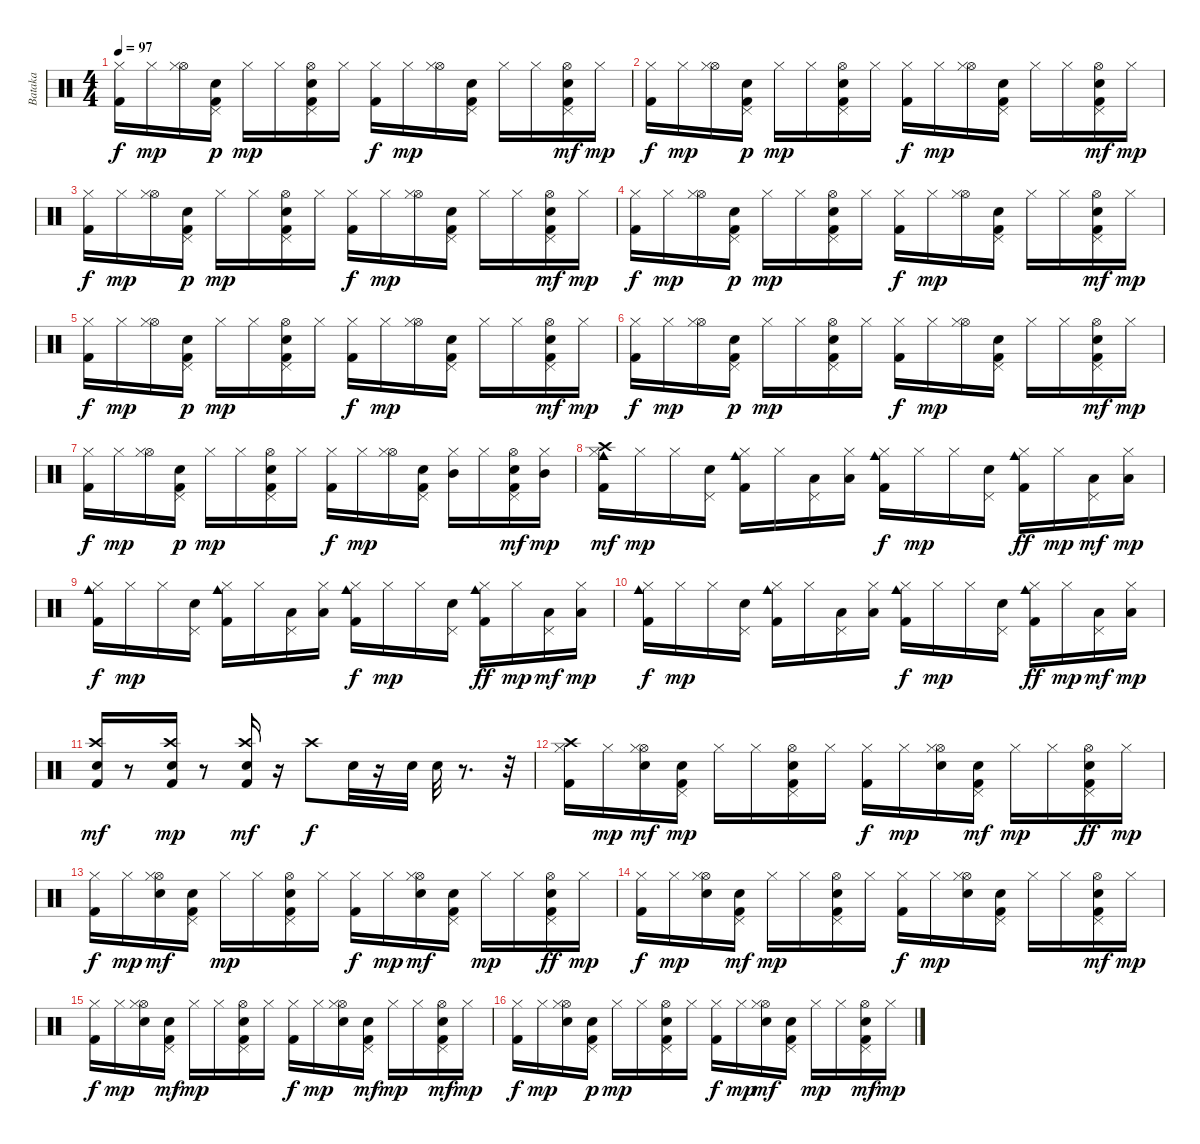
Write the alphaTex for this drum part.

\track ("Bataka" "Bataka") {instrument percussion}
\staff {score}
\articulation defaults
\ts (4 4)
\tempo 97
\clef neutral
\ks c
("Kick (hit) 2" "Hi-Hat (closed)").16{dy f} "Hi-Hat (closed)".16{dy mp} ("Hi-Hat (open)" "Hi-Hat (closed)").16 ("Pedal Hi-Hat (hit)" "Kick (hit) 2" "Electric Snare (hit)").16{dy p} "Hi-Hat (closed)".16{dy mp} "Hi-Hat (closed)".16 ("Hi-Hat (open)" "Kick (hit) 2" "Pedal Hi-Hat (hit)" "Electric Snare (hit)").16 "Hi-Hat (closed)".16 ("Kick (hit) 2" "Hi-Hat (closed)").16{dy f} "Hi-Hat (closed)".16{dy mp} ("Hi-Hat (open)" "Hi-Hat (closed)").16 ("Electric Snare (hit)" "Pedal Hi-Hat (hit)" "Kick (hit) 2").16 "Hi-Hat (closed)".16 "Hi-Hat (closed)".16 ("Hi-Hat (open)" "Electric Snare (hit)" "Pedal Hi-Hat (hit)" "Kick (hit) 2").16{dy mf} "Hi-Hat (closed)".16{dy mp} |
("Kick (hit) 2" "Hi-Hat (closed)").16{dy f} "Hi-Hat (closed)".16{dy mp} ("Hi-Hat (open)" "Hi-Hat (closed)").16 ("Pedal Hi-Hat (hit)" "Kick (hit) 2" "Electric Snare (hit)").16{dy p} "Hi-Hat (closed)".16{dy mp} "Hi-Hat (closed)".16 ("Hi-Hat (open)" "Kick (hit) 2" "Pedal Hi-Hat (hit)" "Electric Snare (hit)").16 "Hi-Hat (closed)".16 ("Kick (hit) 2" "Hi-Hat (closed)").16{dy f} "Hi-Hat (closed)".16{dy mp} ("Hi-Hat (open)" "Hi-Hat (closed)").16 ("Electric Snare (hit)" "Pedal Hi-Hat (hit)" "Kick (hit) 2").16 "Hi-Hat (closed)".16 "Hi-Hat (closed)".16 ("Hi-Hat (open)" "Electric Snare (hit)" "Pedal Hi-Hat (hit)" "Kick (hit) 2").16{dy mf} "Hi-Hat (closed)".16{dy mp} |
("Kick (hit) 2" "Hi-Hat (closed)").16{dy f} "Hi-Hat (closed)".16{dy mp} ("Hi-Hat (open)" "Hi-Hat (closed)").16 ("Pedal Hi-Hat (hit)" "Kick (hit) 2" "Electric Snare (hit)").16{dy p} "Hi-Hat (closed)".16{dy mp} "Hi-Hat (closed)".16 ("Hi-Hat (open)" "Kick (hit) 2" "Pedal Hi-Hat (hit)" "Electric Snare (hit)").16 "Hi-Hat (closed)".16 ("Kick (hit) 2" "Hi-Hat (closed)").16{dy f} "Hi-Hat (closed)".16{dy mp} ("Hi-Hat (open)" "Hi-Hat (closed)").16 ("Electric Snare (hit)" "Pedal Hi-Hat (hit)" "Kick (hit) 2").16 "Hi-Hat (closed)".16 "Hi-Hat (closed)".16 ("Hi-Hat (open)" "Electric Snare (hit)" "Pedal Hi-Hat (hit)" "Kick (hit) 2").16{dy mf} "Hi-Hat (closed)".16{dy mp} |
("Kick (hit) 2" "Hi-Hat (closed)").16{dy f} "Hi-Hat (closed)".16{dy mp} ("Hi-Hat (open)" "Hi-Hat (closed)").16 ("Pedal Hi-Hat (hit)" "Kick (hit) 2" "Electric Snare (hit)").16{dy p} "Hi-Hat (closed)".16{dy mp} "Hi-Hat (closed)".16 ("Hi-Hat (open)" "Kick (hit) 2" "Pedal Hi-Hat (hit)" "Electric Snare (hit)").16 "Hi-Hat (closed)".16 ("Kick (hit) 2" "Hi-Hat (closed)").16{dy f} "Hi-Hat (closed)".16{dy mp} ("Hi-Hat (open)" "Hi-Hat (closed)").16 ("Electric Snare (hit)" "Pedal Hi-Hat (hit)" "Kick (hit) 2").16 "Hi-Hat (closed)".16 "Hi-Hat (closed)".16 ("Hi-Hat (open)" "Electric Snare (hit)" "Pedal Hi-Hat (hit)" "Kick (hit) 2").16{dy mf} "Hi-Hat (closed)".16{dy mp} |
("Kick (hit) 2" "Hi-Hat (closed)").16{dy f} "Hi-Hat (closed)".16{dy mp} ("Hi-Hat (open)" "Hi-Hat (closed)").16 ("Pedal Hi-Hat (hit)" "Kick (hit) 2" "Electric Snare (hit)").16{dy p} "Hi-Hat (closed)".16{dy mp} "Hi-Hat (closed)".16 ("Hi-Hat (open)" "Kick (hit) 2" "Pedal Hi-Hat (hit)" "Electric Snare (hit)").16 "Hi-Hat (closed)".16 ("Kick (hit) 2" "Hi-Hat (closed)").16{dy f} "Hi-Hat (closed)".16{dy mp} ("Hi-Hat (open)" "Hi-Hat (closed)").16 ("Electric Snare (hit)" "Pedal Hi-Hat (hit)" "Kick (hit) 2").16 "Hi-Hat (closed)".16 "Hi-Hat (closed)".16 ("Hi-Hat (open)" "Electric Snare (hit)" "Pedal Hi-Hat (hit)" "Kick (hit) 2").16{dy mf} "Hi-Hat (closed)".16{dy mp} |
("Kick (hit) 2" "Hi-Hat (closed)").16{dy f} "Hi-Hat (closed)".16{dy mp} ("Hi-Hat (open)" "Hi-Hat (closed)").16 ("Pedal Hi-Hat (hit)" "Kick (hit) 2" "Electric Snare (hit)").16{dy p} "Hi-Hat (closed)".16{dy mp} "Hi-Hat (closed)".16 ("Hi-Hat (open)" "Kick (hit) 2" "Pedal Hi-Hat (hit)" "Electric Snare (hit)").16 "Hi-Hat (closed)".16 ("Kick (hit) 2" "Hi-Hat (closed)").16{dy f} "Hi-Hat (closed)".16{dy mp} ("Hi-Hat (open)" "Hi-Hat (closed)").16 ("Electric Snare (hit)" "Pedal Hi-Hat (hit)" "Kick (hit) 2").16 "Hi-Hat (closed)".16 "Hi-Hat (closed)".16 ("Hi-Hat (open)" "Electric Snare (hit)" "Pedal Hi-Hat (hit)" "Kick (hit) 2").16{dy mf} "Hi-Hat (closed)".16{dy mp} |
("Kick (hit) 2" "Hi-Hat (closed)").16{dy f} "Hi-Hat (closed)".16{dy mp} ("Hi-Hat (open)" "Hi-Hat (closed)").16 ("Pedal Hi-Hat (hit)" "Kick (hit) 2" "Electric Snare (hit)").16{dy p} "Hi-Hat (closed)".16{dy mp} "Hi-Hat (closed)".16 ("Hi-Hat (open)" "Kick (hit) 2" "Pedal Hi-Hat (hit)" "Electric Snare (hit)").16 "Hi-Hat (closed)".16 ("Kick (hit) 2" "Hi-Hat (closed)").16{dy f} "Hi-Hat (closed)".16{dy mp} ("Hi-Hat (open)" "Hi-Hat (closed)").16 ("Electric Snare (hit)" "Pedal Hi-Hat (hit)" "Kick (hit) 2").16 ("Mid Tom (hit)" "Hi-Hat (closed)").16 "Hi-Hat (closed)".16 ("Hi-Hat (open)" "Electric Snare (hit)" "Pedal Hi-Hat (hit)" "Kick (hit) 2").16{dy mf} ("Mid Tom (hit)" "Hi-Hat (closed)").16{dy mp} |
("Crash high (hit)" "Cowbell medium (hit)" "Kick (hit) 2" "Hi-Hat (closed)").16{dy mf} "Hi-Hat (closed)".16{dy mp} "Hi-Hat (closed)".16 ("Electric Snare (hit)" "Pedal Hi-Hat (hit)").16 ("Kick (hit) 2" "Cowbell medium (hit)" "Hi-Hat (closed)").16 "Hi-Hat (closed)".16 ("Low Tom (hit)" "Pedal Hi-Hat (hit)").16 ("Low Tom (hit)" "Hi-Hat (closed)").16 ("Kick (hit) 2" "Cowbell medium (hit)" "Hi-Hat (closed)").16{dy f} "Hi-Hat (closed)".16{dy mp} "Hi-Hat (closed)".16 ("Electric Snare (hit)" "Pedal Hi-Hat (hit)").16 ("Kick (hit) 2" "Hi-Hat (closed)" "Cowbell medium (hit)").16{dy ff} "Hi-Hat (closed)".16{dy mp} ("Low Tom (hit)" "Pedal Hi-Hat (hit)").16{dy mf} ("Low Tom (hit)" "Hi-Hat (closed)").16{dy mp} |
("Cowbell medium (hit)" "Kick (hit) 2" "Hi-Hat (closed)").16{dy f} "Hi-Hat (closed)".16{dy mp} "Hi-Hat (closed)".16 ("Electric Snare (hit)" "Pedal Hi-Hat (hit)").16 ("Kick (hit) 2" "Cowbell medium (hit)" "Hi-Hat (closed)").16 "Hi-Hat (closed)".16 ("Low Tom (hit)" "Pedal Hi-Hat (hit)").16 ("Low Tom (hit)" "Hi-Hat (closed)").16 ("Kick (hit) 2" "Cowbell medium (hit)" "Hi-Hat (closed)").16{dy f} "Hi-Hat (closed)".16{dy mp} "Hi-Hat (closed)".16 ("Electric Snare (hit)" "Pedal Hi-Hat (hit)").16 ("Kick (hit) 2" "Hi-Hat (closed)" "Cowbell medium (hit)").16{dy ff} "Hi-Hat (closed)".16{dy mp} ("Low Tom (hit)" "Pedal Hi-Hat (hit)").16{dy mf} ("Low Tom (hit)" "Hi-Hat (closed)").16{dy mp} |
("Cowbell medium (hit)" "Kick (hit) 2" "Hi-Hat (closed)").16{dy f} "Hi-Hat (closed)".16{dy mp} "Hi-Hat (closed)".16 ("Electric Snare (hit)" "Pedal Hi-Hat (hit)").16 ("Kick (hit) 2" "Cowbell medium (hit)" "Hi-Hat (closed)").16 "Hi-Hat (closed)".16 ("Low Tom (hit)" "Pedal Hi-Hat (hit)").16 ("Low Tom (hit)" "Hi-Hat (closed)").16 ("Kick (hit) 2" "Cowbell medium (hit)" "Hi-Hat (closed)").16{dy f} "Hi-Hat (closed)".16{dy mp} "Hi-Hat (closed)".16 ("Electric Snare (hit)" "Pedal Hi-Hat (hit)").16 ("Kick (hit) 2" "Hi-Hat (closed)" "Cowbell medium (hit)").16{dy ff} "Hi-Hat (closed)".16{dy mp} ("Low Tom (hit)" "Pedal Hi-Hat (hit)").16{dy mf} ("Low Tom (hit)" "Hi-Hat (closed)").16{dy mp} |
("Crash high (hit)" "Kick (hit) 2" "Snare (hit) 2").16{dy mf} r.8 ("Kick (hit) 2" "Snare (hit) 2" "Crash high (hit)").16{dy mp} r.8 ("Crash high (hit)" "Kick (hit) 2" "Snare (hit) 2").16{dy mf} r.16 "Crash high (hit)".8{dy f} "Snare (hit) 2".32 r.16 "Snare (hit) 2".32 "Snare (hit) 2".32 r.8{d} r.32 |
("Crash high (hit)" "Kick (hit) 2" "Hi-Hat (closed)").16 "Hi-Hat (closed)".16{dy mp} ("Hi-Hat (open)" "Hi-Hat (closed)" "Electric Snare (hit)").16{dy mf} ("Pedal Hi-Hat (hit)" "Kick (hit) 2" "Electric Snare (hit)").16{dy mp} "Hi-Hat (closed)".16 "Hi-Hat (closed)".16 ("Electric Snare (hit)" "Hi-Hat (open)" "Kick (hit) 2" "Pedal Hi-Hat (hit)").16 "Hi-Hat (closed)".16 ("Kick (hit) 2" "Hi-Hat (closed)").16{dy f} "Hi-Hat (closed)".16{dy mp} ("Hi-Hat (open)" "Hi-Hat (closed)" "Electric Snare (hit)").16 ("Pedal Hi-Hat (hit)" "Kick (hit) 2" "Electric Snare (hit)").16{dy mf} "Hi-Hat (closed)".16{dy mp} "Hi-Hat (closed)".16 ("Hi-Hat (open)" "Pedal Hi-Hat (hit)" "Kick (hit) 2" "Electric Snare (hit)").16{dy ff} "Hi-Hat (closed)".16{dy mp} |
("Kick (hit) 2" "Hi-Hat (closed)").16{dy f} "Hi-Hat (closed)".16{dy mp} ("Hi-Hat (open)" "Hi-Hat (closed)" "Electric Snare (hit)").16{dy mf} ("Pedal Hi-Hat (hit)" "Kick (hit) 2" "Electric Snare (hit)").16 "Hi-Hat (closed)".16{dy mp} "Hi-Hat (closed)".16 ("Electric Snare (hit)" "Hi-Hat (open)" "Kick (hit) 2" "Pedal Hi-Hat (hit)").16 "Hi-Hat (closed)".16 ("Kick (hit) 2" "Hi-Hat (closed)").16{dy f} "Hi-Hat (closed)".16{dy mp} ("Hi-Hat (open)" "Hi-Hat (closed)" "Electric Snare (hit)").16{dy mf} ("Pedal Hi-Hat (hit)" "Kick (hit) 2" "Electric Snare (hit)").16 "Hi-Hat (closed)".16{dy mp} "Hi-Hat (closed)".16 ("Hi-Hat (open)" "Pedal Hi-Hat (hit)" "Kick (hit) 2" "Electric Snare (hit)").16{dy ff} "Hi-Hat (closed)".16{dy mp} |
("Kick (hit) 2" "Hi-Hat (closed)").16{dy f} "Hi-Hat (closed)".16{dy mp} ("Hi-Hat (open)" "Hi-Hat (closed)" "Electric Snare (hit)").16 ("Pedal Hi-Hat (hit)" "Kick (hit) 2" "Electric Snare (hit)").16{dy mf} "Hi-Hat (closed)".16{dy mp} "Hi-Hat (closed)".16 ("Hi-Hat (open)" "Kick (hit) 2" "Pedal Hi-Hat (hit)" "Electric Snare (hit)").16 "Hi-Hat (closed)".16 ("Kick (hit) 2" "Hi-Hat (closed)").16{dy f} "Hi-Hat (closed)".16{dy mp} ("Hi-Hat (open)" "Hi-Hat (closed)" "Electric Snare (hit)").16 ("Pedal Hi-Hat (hit)" "Kick (hit) 2" "Electric Snare (hit)").16 "Hi-Hat (closed)".16 "Hi-Hat (closed)".16 ("Hi-Hat (open)" "Pedal Hi-Hat (hit)" "Kick (hit) 2" "Electric Snare (hit)").16{dy mf} "Hi-Hat (closed)".16{dy mp} |
("Kick (hit) 2" "Hi-Hat (closed)").16{dy f} "Hi-Hat (closed)".16{dy mp} ("Hi-Hat (open)" "Hi-Hat (closed)" "Electric Snare (hit)").16 ("Pedal Hi-Hat (hit)" "Kick (hit) 2" "Electric Snare (hit)").16{dy mf} "Hi-Hat (closed)".16{dy mp} "Hi-Hat (closed)".16 ("Hi-Hat (open)" "Kick (hit) 2" "Pedal Hi-Hat (hit)" "Electric Snare (hit)").16 "Hi-Hat (closed)".16 ("Kick (hit) 2" "Hi-Hat (closed)").16{dy f} "Hi-Hat (closed)".16{dy mp} ("Electric Snare (hit)" "Hi-Hat (open)" "Hi-Hat (closed)").16 ("Pedal Hi-Hat (hit)" "Kick (hit) 2" "Electric Snare (hit)").16{dy mf} "Hi-Hat (closed)".16{dy mp} "Hi-Hat (closed)".16 ("Hi-Hat (open)" "Pedal Hi-Hat (hit)" "Kick (hit) 2" "Electric Snare (hit)").16{dy mf} "Hi-Hat (closed)".16{dy mp} |
("Kick (hit) 2" "Hi-Hat (closed)").16{dy f} "Hi-Hat (closed)".16{dy mp} ("Electric Snare (hit)" "Hi-Hat (open)" "Hi-Hat (closed)").16 ("Electric Snare (hit)" "Pedal Hi-Hat (hit)" "Kick (hit) 2").16{dy p} "Hi-Hat (closed)".16{dy mp} "Hi-Hat (closed)".16 ("Hi-Hat (open)" "Kick (hit) 2" "Pedal Hi-Hat (hit)" "Electric Snare (hit)").16 "Hi-Hat (closed)".16 ("Kick (hit) 2" "Hi-Hat (closed)").16{dy f} "Hi-Hat (closed)".16{dy mp} ("Hi-Hat (open)" "Hi-Hat (closed)" "Electric Snare (hit)").16{dy mf} ("Pedal Hi-Hat (hit)" "Kick (hit) 2" "Electric Snare (hit)").16 "Hi-Hat (closed)".16{dy mp} "Hi-Hat (closed)".16 ("Hi-Hat (open)" "Pedal Hi-Hat (hit)" "Kick (hit) 2" "Electric Snare (hit)").16{dy mf} "Hi-Hat (closed)".16{dy mp}
